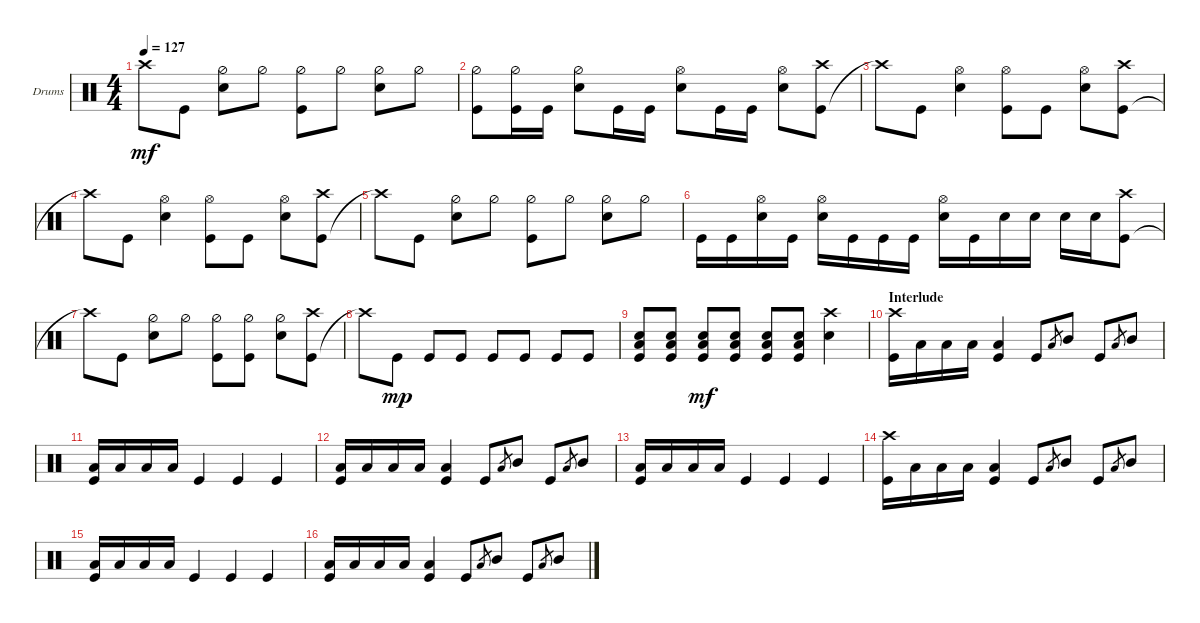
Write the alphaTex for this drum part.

\defaultSystemsLayout 4
\bracketExtendMode groupsimilarinstruments
\firstSystemTrackNameOrientation horizontal
\otherSystemsTrackNameOrientation horizontal
\track ("Drumkit" "Drums") {instrument percussion}
\staff {score}
\articulation defaults
\ts (4 4)
\tempo 127
\clef neutral
\scale
0.333333
\ks c "Crash high (hit)"{t}.8{dy mf} "Kick (hit)".8
("Snare (hit) 2" "Hi-Hat (half)").8 "Hi-Hat (half)".8 ("Hi-Hat (half)" "Kick (hit)").8 "Hi-Hat (half)".8 ("Hi-Hat (half)" "Snare (hit) 2").8 "Hi-Hat (half)".8 |
\scale
0.333333 ("Hi-Hat (half)" "Kick (hit)").8 ("Hi-Hat (half)" "Kick (hit)").16 "Kick (hit)".16 ("Hi-Hat (half)" "Snare (hit) 2").8 "Kick (hit)".16 "Kick (hit)".16 ("Snare (hit) 2" "Hi-Hat (open)").8 "Kick (hit)".16 "Kick (hit)".16 ("Snare (hit) 2" "Hi-Hat (open)").8 ("Kick (hit)" "Crash high (hit)").8 |
\scale
0.333333 "Crash high (hit)"{t}.8 "Kick (hit)".8 ("Snare (hit) 2" "Hi-Hat (open)").4 ("Kick (hit)" "Hi-Hat (open)").8 "Kick (hit)".8 ("Snare (hit) 2" "Hi-Hat (open)").8 ("Kick (hit)" "Crash high (hit)").8 |
\scale
0.333333 "Crash high (hit)"{t}.8 "Kick (hit)".8 ("Snare (hit) 2" "Hi-Hat (open)").4 ("Kick (hit)" "Hi-Hat (open)").8 "Kick (hit)".8 ("Snare (hit) 2" "Hi-Hat (open)").8 ("Kick (hit)" "Crash high (hit)").8 |
\scale
0.333333 "Crash high (hit)"{t}.8 "Kick (hit)".8 ("Snare (hit) 2" "Hi-Hat (half)").8 "Hi-Hat (half)".8 ("Hi-Hat (half)" "Kick (hit)").8 "Hi-Hat (half)".8 ("Hi-Hat (half)" "Snare (hit) 2").8 "Hi-Hat (half)".8 |
\scale
0.333333 "Kick (hit)".16 "Kick (hit)".16 ("Snare (hit) 2" "Hi-Hat (open)").16 "Kick (hit)".16 ("Snare (hit) 2" "Hi-Hat (open)").16 "Kick (hit)".16 "Kick (hit)".16 "Kick (hit)".16 ("Snare (hit) 2" "Hi-Hat (open)").16 "Kick (hit)".16 "Snare (hit) 2".16 "Snare (hit) 2".16 "Snare (hit) 2".16 "Snare (hit) 2".16 ("Kick (hit)" "Crash high (hit)").8 |
\scale
0.333333 "Crash high (hit)"{t}.8 "Kick (hit)".8 ("Snare (hit) 2" "Hi-Hat (half)").8 "Hi-Hat (half)".8 ("Hi-Hat (half)" "Kick (hit)").8 ("Hi-Hat (half)" "Kick (hit)").8 ("Hi-Hat (half)" "Snare (hit) 2").8 ("Kick (hit)" "Crash high (hit)").8 |
\scale
0.333333 "Crash high (hit)"{t}.8 "Kick (hit)".8{dy mp} "Kick (hit)".8 "Kick (hit)".8 "Kick (hit)".8 "Kick (hit)".8 "Kick (hit)".8 "Kick (hit)".8 |
\scale
0.333333 ("Kick (hit)" "Snare (hit) 2" "Low Tom (hit)").8 ("Kick (hit)" "Snare (hit) 2" "Low Tom (hit)").8 ("Kick (hit)" "Snare (hit) 2" "Low Tom (hit)").8{dy mf} ("Kick (hit)" "Snare (hit) 2" "Low Tom (hit)").8 ("Kick (hit)" "Snare (hit) 2" "Low Tom (hit)").8 ("Kick (hit)" "Snare (hit) 2" "Low Tom (hit)").8 ("Snare (hit) 2" "Crash high (hit)").4 |
\section ("" "Interlude")
\scale
0.333333 ("Kick (hit)" "Crash high (hit)").16 "Low Tom (hit)".16 "Low Tom (hit)".16 "Low Tom (hit)".16 ("Low Tom (hit)" "Kick (hit)").4 "Kick (hit)".8 "Low Tom (hit)".8{gr} "Mid Tom (hit)".8 "Kick (hit)".8 "Low Tom (hit)".8{gr} "Mid Tom (hit)".8 |
\scale
0.333333 ("Kick (hit)" "Low Tom (hit)").16 "Low Tom (hit)".16 "Low Tom (hit)".16 "Low Tom (hit)".16 "Kick (hit)".4 "Kick (hit)".4 "Kick (hit)".4 |
\scale
0.333333 ("Kick (hit)" "Low Tom (hit)").16 "Low Tom (hit)".16 "Low Tom (hit)".16 "Low Tom (hit)".16 ("Low Tom (hit)" "Kick (hit)").4 "Kick (hit)".8 "Low Tom (hit)".8{gr} "Mid Tom (hit)".8 "Kick (hit)".8 "Low Tom (hit)".8{gr} "Mid Tom (hit)".8 |
\scale
0.333333 ("Kick (hit)" "Low Tom (hit)").16 "Low Tom (hit)".16 "Low Tom (hit)".16 "Low Tom (hit)".16 "Kick (hit)".4 "Kick (hit)".4 "Kick (hit)".4 |
\scale
0.333333 ("Kick (hit)" "Crash high (hit)").16 "Low Tom (hit)".16 "Low Tom (hit)".16 "Low Tom (hit)".16 ("Low Tom (hit)" "Kick (hit)").4 "Kick (hit)".8 "Low Tom (hit)".8{gr} "Mid Tom (hit)".8 "Kick (hit)".8 "Low Tom (hit)".8{gr} "Mid Tom (hit)".8 |
\scale
0.333333 ("Kick (hit)" "Low Tom (hit)").16 "Low Tom (hit)".16 "Low Tom (hit)".16 "Low Tom (hit)".16 "Kick (hit)".4 "Kick (hit)".4 "Kick (hit)".4 |
\scale
0.333333 ("Kick (hit)" "Low Tom (hit)").16 "Low Tom (hit)".16 "Low Tom (hit)".16 "Low Tom (hit)".16 ("Low Tom (hit)" "Kick (hit)").4 "Kick (hit)".8 "Low Tom (hit)".8{gr} "Mid Tom (hit)".8 "Kick (hit)".8 "Low Tom (hit)".8{gr} "Mid Tom (hit)".8
